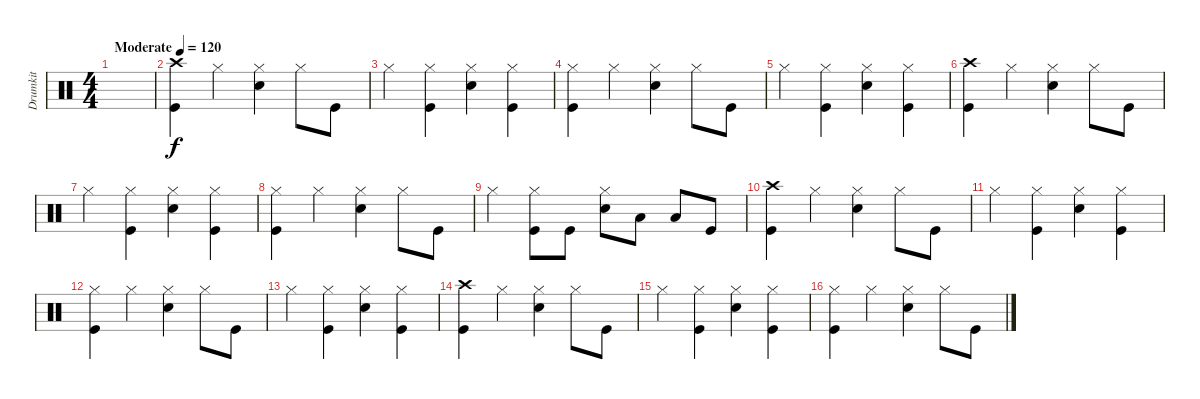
\track ("Drumkit" "Drumkit") {instrument percussion}
\staff {score}
\articulation defaults
\ts (4 4)
\tempo (120 "Moderate")
\clef neutral
\ks c
|
("Kick (hit)" "Crash high (hit)").4 "Hi-Hat (closed)".4 ("Hi-Hat (closed)" "Snare (hit) 2").4 "Hi-Hat (closed)".8 "Kick (hit)".8 |
"Hi-Hat (closed)".4 ("Hi-Hat (closed)" "Kick (hit)").4 ("Hi-Hat (closed)" "Snare (hit) 2").4 ("Hi-Hat (closed)" "Kick (hit)").4 |
("Kick (hit)" "Hi-Hat (closed)").4 "Hi-Hat (closed)".4 ("Hi-Hat (closed)" "Snare (hit) 2").4 "Hi-Hat (closed)".8 "Kick (hit)".8 |
"Hi-Hat (closed)".4 ("Hi-Hat (closed)" "Kick (hit)").4 ("Hi-Hat (closed)" "Snare (hit) 2").4 ("Hi-Hat (closed)" "Kick (hit)").4 |
("Kick (hit)" "Crash high (hit)").4 "Hi-Hat (closed)".4 ("Hi-Hat (closed)" "Snare (hit) 2").4 "Hi-Hat (closed)".8 "Kick (hit)".8 |
"Hi-Hat (closed)".4 ("Hi-Hat (closed)" "Kick (hit)").4 ("Hi-Hat (closed)" "Snare (hit) 2").4 ("Hi-Hat (closed)" "Kick (hit)").4 |
("Kick (hit)" "Hi-Hat (closed)").4 "Hi-Hat (closed)".4 ("Hi-Hat (closed)" "Snare (hit) 2").4 "Hi-Hat (closed)".8 "Kick (hit)".8 |
"Hi-Hat (closed)".4 ("Hi-Hat (closed)" "Kick (hit)").8 "Kick (hit)".8 ("Hi-Hat (closed)" "Snare (hit) 2").8 "Low Tom (hit)".8 "Low Tom (hit)".8 "Kick (hit)".8 |
("Kick (hit)" "Crash high (hit)").4 "Hi-Hat (closed)".4 ("Hi-Hat (closed)" "Snare (hit) 2").4 "Hi-Hat (closed)".8 "Kick (hit)".8 |
"Hi-Hat (closed)".4 ("Hi-Hat (closed)" "Kick (hit)").4 ("Hi-Hat (closed)" "Snare (hit) 2").4 ("Hi-Hat (closed)" "Kick (hit)").4 |
("Kick (hit)" "Hi-Hat (closed)").4 "Hi-Hat (closed)".4 ("Hi-Hat (closed)" "Snare (hit) 2").4 "Hi-Hat (closed)".8 "Kick (hit)".8 |
"Hi-Hat (closed)".4 ("Hi-Hat (closed)" "Kick (hit)").4 ("Hi-Hat (closed)" "Snare (hit) 2").4 ("Hi-Hat (closed)" "Kick (hit)").4 |
("Kick (hit)" "Crash high (hit)").4 "Hi-Hat (closed)".4 ("Hi-Hat (closed)" "Snare (hit) 2").4 "Hi-Hat (closed)".8 "Kick (hit)".8 |
"Hi-Hat (closed)".4 ("Hi-Hat (closed)" "Kick (hit)").4 ("Hi-Hat (closed)" "Snare (hit) 2").4 ("Hi-Hat (closed)" "Kick (hit)").4 |
("Kick (hit)" "Hi-Hat (closed)").4 "Hi-Hat (closed)".4 ("Hi-Hat (closed)" "Snare (hit) 2").4 "Hi-Hat (closed)".8 "Kick (hit)".8
